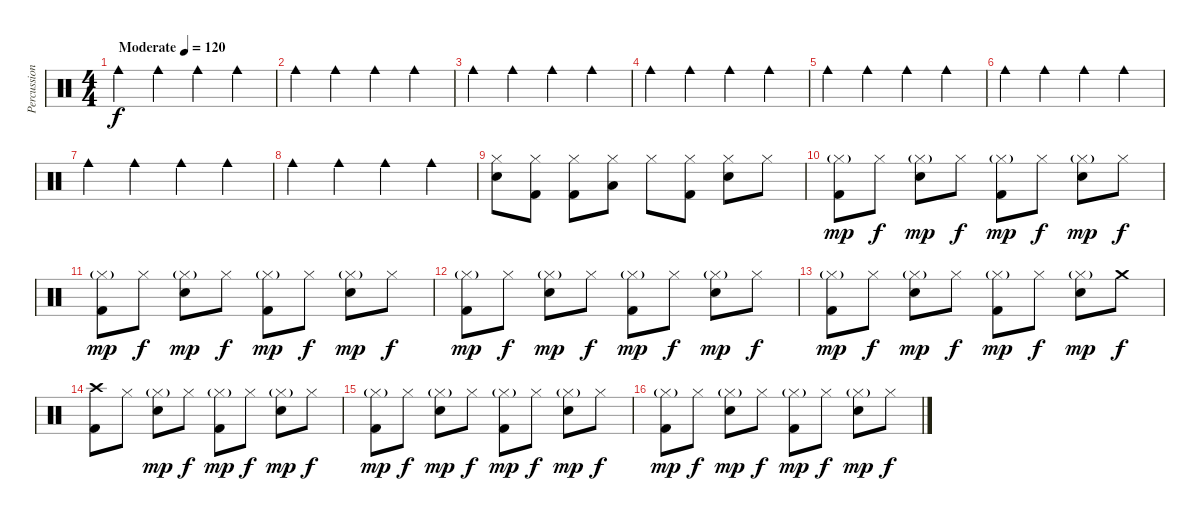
\track ("Percussion" "Percussion") {instrument percussion}
\staff {score}
\articulation defaults
\ts (4 4)
\tempo (120 "Moderate")
\clef neutral
\ks c "Cowbell medium (hit)".4{dy f} "Cowbell medium (hit)".4 "Cowbell medium (hit)".4 "Cowbell medium (hit)".4
|
"Cowbell medium (hit)".4 "Cowbell medium (hit)".4 "Cowbell medium (hit)".4 "Cowbell medium (hit)".4 |
"Cowbell medium (hit)".4 "Cowbell medium (hit)".4 "Cowbell medium (hit)".4 "Cowbell medium (hit)".4 |
"Cowbell medium (hit)".4 "Cowbell medium (hit)".4 "Cowbell medium (hit)".4 "Cowbell medium (hit)".4 |
"Cowbell medium (hit)".4 "Cowbell medium (hit)".4 "Cowbell medium (hit)".4 "Cowbell medium (hit)".4 |
"Cowbell medium (hit)".4 "Cowbell medium (hit)".4 "Cowbell medium (hit)".4 "Cowbell medium (hit)".4 |
"Cowbell medium (hit)".4 "Cowbell medium (hit)".4 "Cowbell medium (hit)".4 "Cowbell medium (hit)".4 |
"Cowbell medium (hit)".4 "Cowbell medium (hit)".4 "Cowbell medium (hit)".4 "Cowbell medium (hit)".4 |
("Hi-Hat (closed)" "Electric Snare (hit)").8 ("Hi-Hat (closed)" "Kick (hit) 2").8 ("Hi-Hat (closed)" "Kick (hit) 2").8 ("Hi-Hat (closed)" "Low Tom (hit)").8 "Hi-Hat (closed)".8 ("Hi-Hat (closed)" "Kick (hit) 2").8 ("Hi-Hat (closed)" "Electric Snare (hit)").8 "Hi-Hat (closed)".8 |
("Hi-Hat (closed)"{g} "Kick (hit) 2").8{dy mp} "Hi-Hat (closed)".8{dy f} ("Hi-Hat (closed)"{g} "Electric Snare (hit)").8{dy mp} "Hi-Hat (closed)".8{dy f} ("Hi-Hat (closed)"{g} "Kick (hit) 2").8{dy mp} "Hi-Hat (closed)".8{dy f} ("Hi-Hat (closed)"{g} "Electric Snare (hit)").8{dy mp} "Hi-Hat (closed)".8{dy f} |
("Hi-Hat (closed)"{g} "Kick (hit) 2").8{dy mp} "Hi-Hat (closed)".8{dy f} ("Hi-Hat (closed)"{g} "Electric Snare (hit)").8{dy mp} "Hi-Hat (closed)".8{dy f} ("Hi-Hat (closed)"{g} "Kick (hit) 2").8{dy mp} "Hi-Hat (closed)".8{dy f} ("Hi-Hat (closed)"{g} "Electric Snare (hit)").8{dy mp} "Hi-Hat (closed)".8{dy f} |
("Hi-Hat (closed)"{g} "Kick (hit) 2").8{dy mp} "Hi-Hat (closed)".8{dy f} ("Hi-Hat (closed)"{g} "Electric Snare (hit)").8{dy mp} "Hi-Hat (closed)".8{dy f} ("Hi-Hat (closed)"{g} "Kick (hit) 2").8{dy mp} "Hi-Hat (closed)".8{dy f} ("Hi-Hat (closed)"{g} "Electric Snare (hit)").8{dy mp} "Hi-Hat (closed)".8{dy f} |
("Hi-Hat (closed)"{g} "Kick (hit) 2").8{dy mp} "Hi-Hat (closed)".8{dy f} ("Hi-Hat (closed)"{g} "Electric Snare (hit)").8{dy mp} "Hi-Hat (closed)".8{dy f} ("Hi-Hat (closed)"{g} "Kick (hit) 2").8{dy mp} "Hi-Hat (closed)".8{dy f} ("Hi-Hat (closed)"{g} "Electric Snare (hit)").8{dy mp} "Crash medium (hit)".8{dy f} |
("Crash high (hit)" "Kick (hit) 2").8 "Hi-Hat (closed)".8 ("Hi-Hat (closed)"{g} "Electric Snare (hit)").8{dy mp} "Hi-Hat (closed)".8{dy f} ("Hi-Hat (closed)"{g} "Kick (hit) 2").8{dy mp} "Hi-Hat (closed)".8{dy f} ("Hi-Hat (closed)"{g} "Electric Snare (hit)").8{dy mp} "Hi-Hat (closed)".8{dy f} |
("Hi-Hat (closed)"{g} "Kick (hit) 2").8{dy mp} "Hi-Hat (closed)".8{dy f} ("Hi-Hat (closed)"{g} "Electric Snare (hit)").8{dy mp} "Hi-Hat (closed)".8{dy f} ("Hi-Hat (closed)"{g} "Kick (hit) 2").8{dy mp} "Hi-Hat (closed)".8{dy f} ("Hi-Hat (closed)"{g} "Electric Snare (hit)").8{dy mp} "Hi-Hat (closed)".8{dy f} |
("Hi-Hat (closed)"{g} "Kick (hit) 2").8{dy mp} "Hi-Hat (closed)".8{dy f} ("Hi-Hat (closed)"{g} "Electric Snare (hit)").8{dy mp} "Hi-Hat (closed)".8{dy f} ("Hi-Hat (closed)"{g} "Kick (hit) 2").8{dy mp} "Hi-Hat (closed)".8{dy f} ("Hi-Hat (closed)"{g} "Electric Snare (hit)").8{dy mp} "Hi-Hat (closed)".8{dy f}
